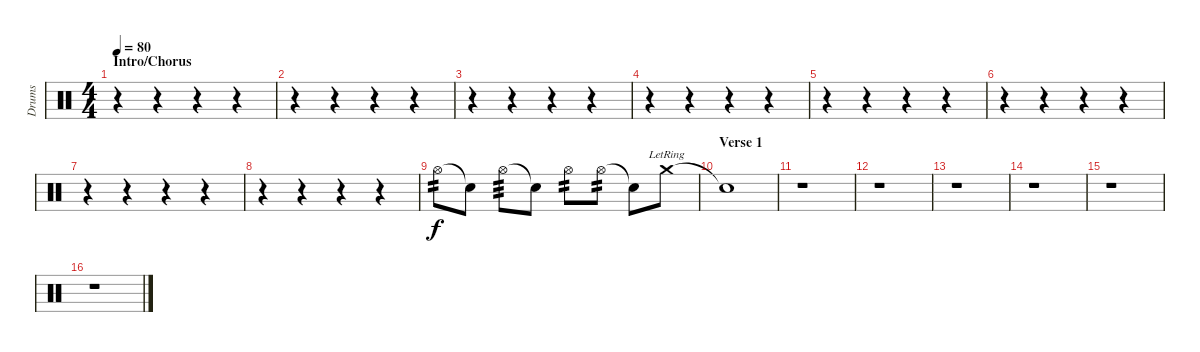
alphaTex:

\track ("Drums" "Drums") {instrument percussion}
\staff {score}
\articulation defaults
\ts (4 4)
\section ("" "Intro/Chorus")
\tempo 80
\clef neutral
\ks c
r.4{dy f} r.4 r.4 r.4 |
r.4 r.4 r.4 r.4 |
r.4 r.4 r.4 r.4 |
r.4 r.4 r.4 r.4 |
r.4 r.4 r.4 r.4 |
r.4 r.4 r.4 r.4 |
r.4 r.4 r.4 r.4 |
r.4 r.4 r.4{volume 6} r.4 |
"Hi-Hat (open)".8{tp 2} "Snare (hit)"{t}.8 "Hi-Hat (open)".8{tp 3} "Snare (hit)"{t}.8{volume 10} "Hi-Hat (open)".8{tp 2} "Hi-Hat (open)".8{tp 2} "Snare (hit)"{t}.8 "Crash medium (hit)"{lr}.8 |
\section ("" "Verse 1")
"Snare (hit)"{t}.1 |
r.1{volume 6} |
r.1 |
r.1 |
r.1 |
r.1 |
r.1
